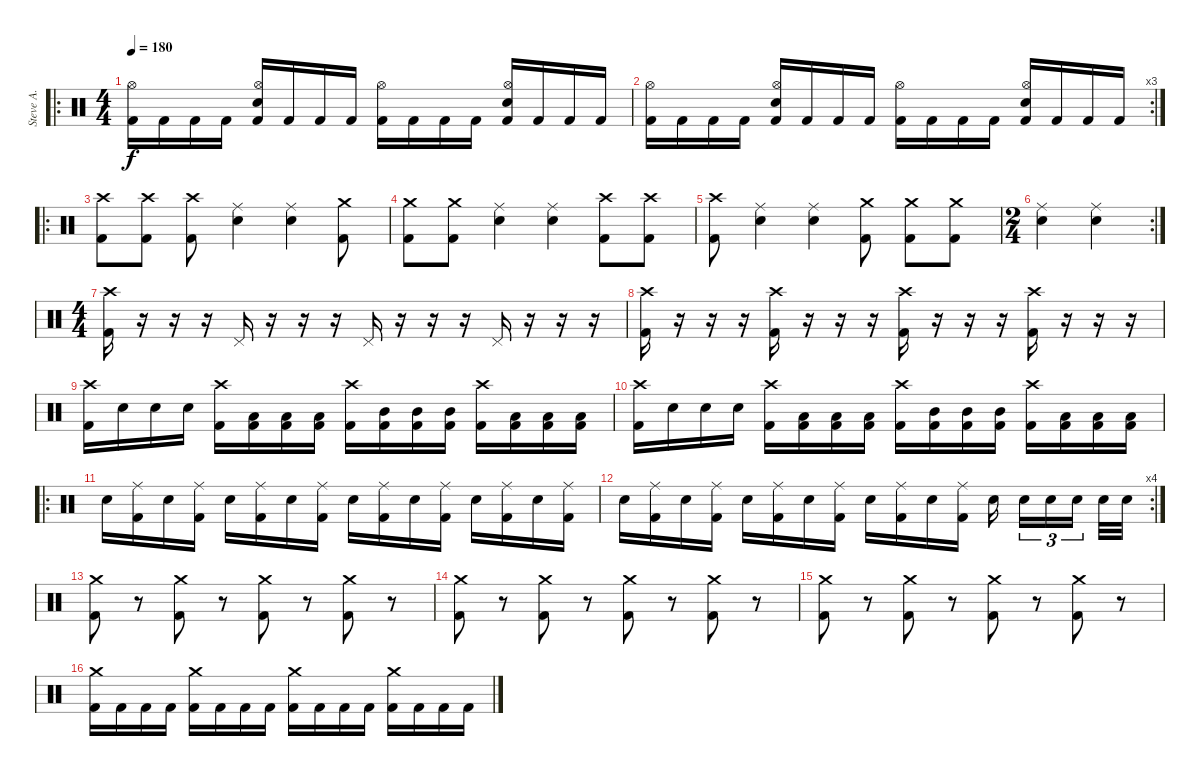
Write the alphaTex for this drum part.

\track ("Steve A." "Steve A.") {instrument percussion}
\staff {score}
\articulation defaults
\ro
\ts (4 4)
\tempo 180
\clef neutral
\ks c
("Kick (hit) 2" "Hi-Hat (open)").16{dy f} "Kick (hit) 2".16 "Kick (hit) 2".16 "Kick (hit) 2".16 ("Kick (hit) 2" "Hi-Hat (open)" "Electric Snare (hit)").16 "Kick (hit) 2".16 "Kick (hit) 2".16 "Kick (hit) 2".16 ("Kick (hit) 2" "Hi-Hat (open)").16 "Kick (hit) 2".16 "Kick (hit) 2".16 "Kick (hit) 2".16 ("Kick (hit) 2" "Hi-Hat (open)" "Electric Snare (hit)").16 "Kick (hit) 2".16 "Kick (hit) 2".16 "Kick (hit) 2".16 |
\rc 3
("Kick (hit) 2" "Hi-Hat (open)").16 "Kick (hit) 2".16 "Kick (hit) 2".16 "Kick (hit) 2".16 ("Kick (hit) 2" "Hi-Hat (open)" "Electric Snare (hit)").16 "Kick (hit) 2".16 "Kick (hit) 2".16 "Kick (hit) 2".16 ("Kick (hit) 2" "Hi-Hat (open)").16 "Kick (hit) 2".16 "Kick (hit) 2".16 "Kick (hit) 2".16 ("Kick (hit) 2" "Hi-Hat (open)" "Electric Snare (hit)").16 "Kick (hit) 2".16 "Kick (hit) 2".16 "Kick (hit) 2".16 |
\ro
("Kick (hit) 2" "Crash high (hit)").8 ("Kick (hit) 2" "Crash high (hit)").8 ("Kick (hit) 2" "Crash high (hit)").8 ("Ride (middle)" "Electric Snare (hit)").4 ("Ride (middle)" "Electric Snare (hit)").4 ("Kick (hit) 2" "Crash medium (hit)").8 |
("Kick (hit) 2" "Crash medium (hit)").8 ("Kick (hit) 2" "Crash medium (hit)").8 ("Ride (middle)" "Electric Snare (hit)").4 ("Ride (middle)" "Electric Snare (hit)").4 ("Kick (hit) 2" "Crash high (hit)").8 ("Kick (hit) 2" "Crash high (hit)").8 |
("Kick (hit) 2" "Crash high (hit)").8 ("Ride (middle)" "Electric Snare (hit)").4 ("Ride (middle)" "Electric Snare (hit)").4 ("Kick (hit) 2" "Crash medium (hit)").8 ("Kick (hit) 2" "Crash medium (hit)").8 ("Kick (hit) 2" "Crash medium (hit)").8 |
\rc 2
\ts (2 4)
("Ride (middle)" "Electric Snare (hit)").4 ("Ride (middle)" "Electric Snare (hit)").4 |
\ts (4 4)
("Kick (hit) 2" "Crash high (hit)").16 r.16 r.16 r.16 "Pedal Hi-Hat (hit)".16 r.16 r.16 r.16 "Pedal Hi-Hat (hit)".16 r.16 r.16 r.16 "Pedal Hi-Hat (hit)".16 r.16 r.16 r.16 |
("Kick (hit) 2" "Crash high (hit)").16 r.16 r.16 r.16 ("Kick (hit) 2" "Crash high (hit)").16 r.16 r.16 r.16 ("Kick (hit) 2" "Crash high (hit)").16 r.16 r.16 r.16 ("Kick (hit) 2" "Crash high (hit)").16 r.16 r.16 r.16 |
("Kick (hit) 2" "Crash high (hit)").16 "Electric Snare (hit)".16 "Electric Snare (hit)".16 "Electric Snare (hit)".16 ("Kick (hit) 2" "Crash high (hit)").16 ("Kick (hit) 2" "Low Tom (hit)").16 ("Kick (hit) 2" "Low Tom (hit)").16 ("Kick (hit) 2" "Low Tom (hit)").16 ("Kick (hit) 2" "Crash high (hit)").16 ("Kick (hit) 2" "Mid Tom (hit)").16 ("Kick (hit) 2" "Mid Tom (hit)").16 ("Kick (hit) 2" "Mid Tom (hit)").16 ("Kick (hit) 2" "Crash high (hit)").16 ("Kick (hit) 2" "Low Tom (hit)").16 ("Kick (hit) 2" "Low Tom (hit)").16 ("Kick (hit) 2" "Low Tom (hit)").16 |
("Kick (hit) 2" "Crash high (hit)").16 "Electric Snare (hit)".16 "Electric Snare (hit)".16 "Electric Snare (hit)".16 ("Kick (hit) 2" "Crash high (hit)").16 ("Kick (hit) 2" "Low Tom (hit)").16 ("Kick (hit) 2" "Low Tom (hit)").16 ("Kick (hit) 2" "Low Tom (hit)").16 ("Kick (hit) 2" "Crash high (hit)").16 ("Kick (hit) 2" "Mid Tom (hit)").16 ("Kick (hit) 2" "Mid Tom (hit)").16 ("Kick (hit) 2" "Mid Tom (hit)").16 ("Kick (hit) 2" "Crash high (hit)").16 ("Kick (hit) 2" "Low Tom (hit)").16 ("Kick (hit) 2" "Low Tom (hit)").16 ("Kick (hit) 2" "Low Tom (hit)").16 |
\ro "Electric Snare (hit)".16
("Kick (hit) 2" "Ride (middle)").16 "Electric Snare (hit)".16 ("Kick (hit) 2" "Ride (middle)").16 "Electric Snare (hit)".16 ("Kick (hit) 2" "Ride (middle)").16 "Electric Snare (hit)".16 ("Kick (hit) 2" "Ride (middle)").16 "Electric Snare (hit)".16 ("Kick (hit) 2" "Ride (middle)").16 "Electric Snare (hit)".16 ("Kick (hit) 2" "Ride (middle)").16 "Electric Snare (hit)".16 ("Kick (hit) 2" "Ride (middle)").16 "Electric Snare (hit)".16 ("Kick (hit) 2" "Ride (middle)").16 |
\rc 4 "Electric Snare (hit)".16
("Kick (hit) 2" "Ride (middle)").16 "Electric Snare (hit)".16 ("Kick (hit) 2" "Ride (middle)").16 "Electric Snare (hit)".16 ("Kick (hit) 2" "Ride (middle)").16 "Electric Snare (hit)".16 ("Kick (hit) 2" "Ride (middle)").16 "Electric Snare (hit)".16 ("Kick (hit) 2" "Ride (middle)").16 "Electric Snare (hit)".16 ("Kick (hit) 2" "Ride (middle)").16 "Electric Snare (hit)".16 "Electric Snare (hit)".16{tu (3 2)} "Electric Snare (hit)".16{tu (3 2)} "Electric Snare (hit)".16{tu (3 2)} "Electric Snare (hit)".32 "Electric Snare (hit)".32 |
("Kick (hit) 2" "Crash medium (hit)").8 r.8 ("Kick (hit) 2" "Crash medium (hit)").8 r.8 ("Kick (hit) 2" "Crash medium (hit)").8 r.8 ("Kick (hit) 2" "Crash medium (hit)").8 r.8 |
("Kick (hit) 2" "Crash medium (hit)").8 r.8 ("Kick (hit) 2" "Crash medium (hit)").8 r.8 ("Kick (hit) 2" "Crash medium (hit)").8 r.8 ("Kick (hit) 2" "Crash medium (hit)").8 r.8 |
("Kick (hit) 2" "Crash medium (hit)").8 r.8 ("Kick (hit) 2" "Crash medium (hit)").8 r.8 ("Kick (hit) 2" "Crash medium (hit)").8 r.8 ("Kick (hit) 2" "Crash medium (hit)").8 r.8 |
("Kick (hit) 2" "Crash medium (hit)").16 "Kick (hit) 2".16 "Kick (hit) 2".16 "Kick (hit) 2".16 ("Kick (hit) 2" "Crash medium (hit)").16 "Kick (hit) 2".16 "Kick (hit) 2".16 "Kick (hit) 2".16 ("Kick (hit) 2" "Crash medium (hit)").16 "Kick (hit) 2".16 "Kick (hit) 2".16 "Kick (hit) 2".16 ("Kick (hit) 2" "Crash medium (hit)").16 "Kick (hit) 2".16 "Kick (hit) 2".16 "Kick (hit) 2".16
